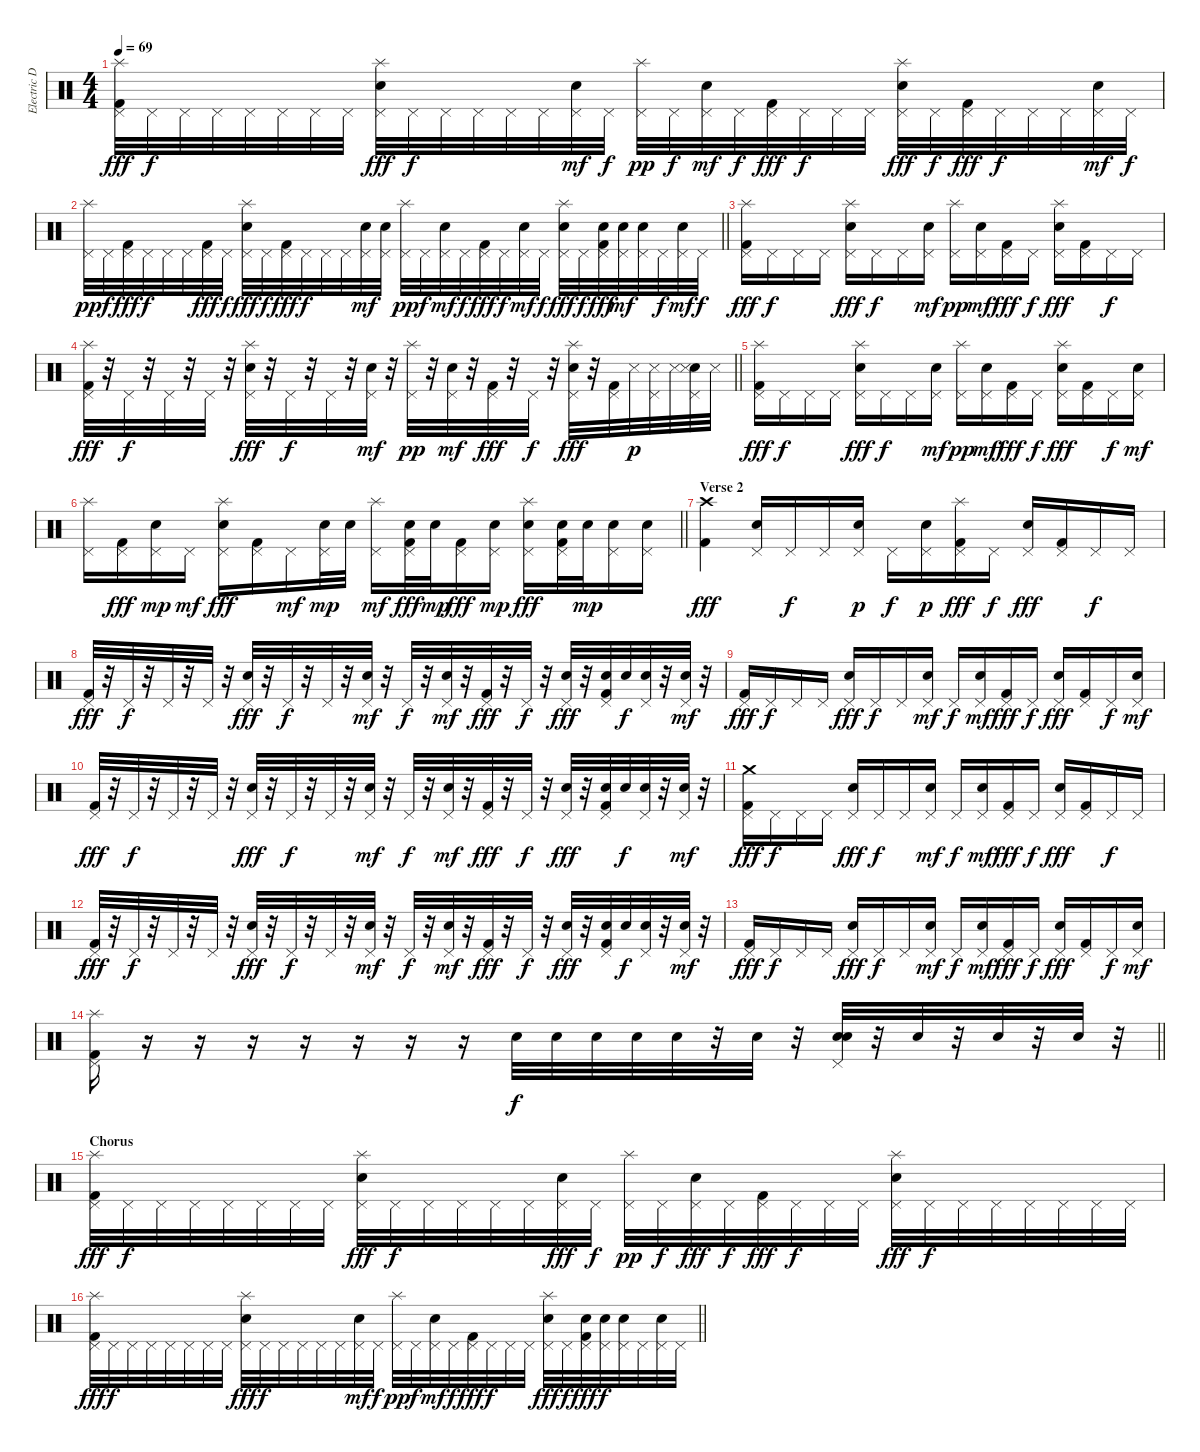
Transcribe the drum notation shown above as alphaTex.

\track ("Electric Drums" "Electric D") {instrument percussion}
\staff {score}
\articulation defaults
\ts (4 4)
\tempo 69
\clef neutral
\ks aminor
("Splash (hit)" "Pedal Hi-Hat (hit)" "Kick (hit) 2").32{dy fff} "Pedal Hi-Hat (hit)".32{dy f} "Pedal Hi-Hat (hit)".32 "Pedal Hi-Hat (hit)".32 "Pedal Hi-Hat (hit)".32 "Pedal Hi-Hat (hit)".32 "Pedal Hi-Hat (hit)".32 "Pedal Hi-Hat (hit)".32 ("Splash (hit)" "Pedal Hi-Hat (hit)" "Hand Clap (hit)").32{dy fff} "Pedal Hi-Hat (hit)".32{dy f} "Pedal Hi-Hat (hit)".32 "Pedal Hi-Hat (hit)".32 "Pedal Hi-Hat (hit)".32 "Pedal Hi-Hat (hit)".32 ("Pedal Hi-Hat (hit)" "Snare (hit) 2").32{dy mf} "Pedal Hi-Hat (hit)".32{dy f} ("Splash (hit)" "Pedal Hi-Hat (hit)").32{dy pp} "Pedal Hi-Hat (hit)".32{dy f} ("Pedal Hi-Hat (hit)" "Snare (hit) 2").32{dy mf} "Pedal Hi-Hat (hit)".32{dy f} ("Pedal Hi-Hat (hit)" "Kick (hit) 2").32{dy fff} "Pedal Hi-Hat (hit)".32{dy f} "Pedal Hi-Hat (hit)".32 "Pedal Hi-Hat (hit)".32 ("Splash (hit)" "Pedal Hi-Hat (hit)" "Hand Clap (hit)").32{dy fff} "Pedal Hi-Hat (hit)".32{dy f} ("Pedal Hi-Hat (hit)" "Kick (hit) 2").32{dy fff} "Pedal Hi-Hat (hit)".32{dy f} "Pedal Hi-Hat (hit)".32 "Pedal Hi-Hat (hit)".32 ("Pedal Hi-Hat (hit)" "Snare (hit) 2").32{dy mf} "Pedal Hi-Hat (hit)".32{dy f} |
\barLineRight lightlight
("Splash (hit)" "Pedal Hi-Hat (hit)").32{dy pp} "Pedal Hi-Hat (hit)".32{dy f} ("Pedal Hi-Hat (hit)" "Kick (hit) 2").32{dy fff} "Pedal Hi-Hat (hit)".32{dy f} "Pedal Hi-Hat (hit)".32 "Pedal Hi-Hat (hit)".32 ("Pedal Hi-Hat (hit)" "Kick (hit) 2").32{dy fff} "Pedal Hi-Hat (hit)".32{dy f} ("Splash (hit)" "Pedal Hi-Hat (hit)" "Hand Clap (hit)").32{dy fff} "Pedal Hi-Hat (hit)".32{dy f} ("Pedal Hi-Hat (hit)" "Kick (hit) 2").32{dy fff} "Pedal Hi-Hat (hit)".32{dy f} "Pedal Hi-Hat (hit)".32 "Pedal Hi-Hat (hit)".32 ("Pedal Hi-Hat (hit)" "Snare (hit) 2").32{dy mf} ("Pedal Hi-Hat (hit)" "Snare (hit) 2").32 ("Splash (hit)" "Pedal Hi-Hat (hit)").32{dy pp} "Pedal Hi-Hat (hit)".32{dy f} ("Pedal Hi-Hat (hit)" "Snare (hit) 2").32{dy mf} "Pedal Hi-Hat (hit)".32{dy f} ("Pedal Hi-Hat (hit)" "Kick (hit) 2").32{dy fff} "Pedal Hi-Hat (hit)".32{dy f} ("Pedal Hi-Hat (hit)" "Snare (hit) 2").32{dy mf} "Pedal Hi-Hat (hit)".32{dy f} ("Splash (hit)" "Pedal Hi-Hat (hit)" "Hand Clap (hit)").32{dy fff} "Pedal Hi-Hat (hit)".32{dy f} ("Pedal Hi-Hat (hit)" "Snare (hit) 2" "Kick (hit) 2").32{dy fff} ("Pedal Hi-Hat (hit)" "Snare (hit) 2").32{dy mf} ("Pedal Hi-Hat (hit)" "Snare (hit) 2").32 "Pedal Hi-Hat (hit)".32{dy f} ("Pedal Hi-Hat (hit)" "Snare (hit) 2").32{dy mf} "Pedal Hi-Hat (hit)".32{dy f} |
("Splash (hit)" "Pedal Hi-Hat (hit)" "Kick (hit) 2").16{dy fff} "Pedal Hi-Hat (hit)".16{dy f} "Pedal Hi-Hat (hit)".16 "Pedal Hi-Hat (hit)".16 ("Splash (hit)" "Pedal Hi-Hat (hit)" "Hand Clap (hit)").16{dy fff} "Pedal Hi-Hat (hit)".16{dy f} "Pedal Hi-Hat (hit)".16 ("Pedal Hi-Hat (hit)" "Snare (hit) 2").16{dy mf} ("Splash (hit)" "Pedal Hi-Hat (hit)").16{dy pp} ("Pedal Hi-Hat (hit)" "Snare (hit) 2").16{dy mf} ("Pedal Hi-Hat (hit)" "Kick (hit) 2").16{dy fff} "Pedal Hi-Hat (hit)".16{dy f} ("Splash (hit)" "Pedal Hi-Hat (hit)" "Hand Clap (hit)").16{dy fff} ("Pedal Hi-Hat (hit)" "Kick (hit) 2").16 "Pedal Hi-Hat (hit)".16{dy f} "Pedal Hi-Hat (hit)".16 |
\barLineRight lightlight
("Splash (hit)" "Pedal Hi-Hat (hit)" "Kick (hit) 2").32{dy fff} r.32 "Pedal Hi-Hat (hit)".32{dy f} r.32 "Pedal Hi-Hat (hit)".32 r.32 "Pedal Hi-Hat (hit)".32 r.32 ("Splash (hit)" "Pedal Hi-Hat (hit)" "Hand Clap (hit)").32{dy fff} r.32 "Pedal Hi-Hat (hit)".32{dy f} r.32 "Pedal Hi-Hat (hit)".32 r.32 ("Pedal Hi-Hat (hit)" "Snare (hit) 2").32{dy mf} r.32 ("Splash (hit)" "Pedal Hi-Hat (hit)").32{dy pp} r.32 ("Pedal Hi-Hat (hit)" "Snare (hit) 2").32{dy mf} r.32 ("Pedal Hi-Hat (hit)" "Kick (hit) 2").32{dy fff} r.32 "Pedal Hi-Hat (hit)".32{dy f} r.32 ("Splash (hit)" "Pedal Hi-Hat (hit)" "Hand Clap (hit)").32{dy fff} r.32 ("Pedal Hi-Hat (hit)" "Kick (hit) 2").32 "Snare (side stick) 3".32{dy p} ("Pedal Hi-Hat (hit)" "Snare (side stick) 3").32 "Snare (side stick) 3".32 ("Pedal Hi-Hat (hit)" "Snare (hit) 2" "Snare (side stick) 3").32 "Snare (side stick) 3".32 |
("Splash (hit)" "Pedal Hi-Hat (hit)" "Kick (hit) 2").16{dy fff} "Pedal Hi-Hat (hit)".16{dy f} "Pedal Hi-Hat (hit)".16 "Pedal Hi-Hat (hit)".16 ("Splash (hit)" "Pedal Hi-Hat (hit)" "Hand Clap (hit)").16{dy fff} "Pedal Hi-Hat (hit)".16{dy f} "Pedal Hi-Hat (hit)".16 ("Pedal Hi-Hat (hit)" "Snare (hit) 2").16{dy mf} ("Splash (hit)" "Pedal Hi-Hat (hit)").16{dy pp} ("Pedal Hi-Hat (hit)" "Snare (hit) 2").16{dy mf} ("Pedal Hi-Hat (hit)" "Kick (hit) 2").16{dy fff} "Pedal Hi-Hat (hit)".16{dy f} ("Splash (hit)" "Pedal Hi-Hat (hit)" "Hand Clap (hit)").16{dy fff} ("Pedal Hi-Hat (hit)" "Kick (hit) 2").16 "Pedal Hi-Hat (hit)".16{dy f} ("Pedal Hi-Hat (hit)" "Snare (hit) 2").16{dy mf} |
\barLineRight lightlight
("Splash (hit)" "Pedal Hi-Hat (hit)").16 ("Pedal Hi-Hat (hit)" "Kick (hit) 2").16{dy fff} ("Pedal Hi-Hat (hit)" "Snare (hit) 2").16{dy mp} "Pedal Hi-Hat (hit)".16{dy mf} ("Splash (hit)" "Pedal Hi-Hat (hit)" "Hand Clap (hit)").16{dy fff} ("Pedal Hi-Hat (hit)" "Kick (hit) 2").16 "Pedal Hi-Hat (hit)".16{dy mf} ("Pedal Hi-Hat (hit)" "Snare (hit) 2").32{dy mp} "Snare (hit) 2".32 ("Splash (hit)" "Pedal Hi-Hat (hit)").16{dy mf} ("Pedal Hi-Hat (hit)" "Snare (hit) 2" "Kick (hit) 2").32{dy fff} "Snare (hit) 2".32{dy mp} ("Pedal Hi-Hat (hit)" "Kick (hit) 2").16{dy fff} ("Pedal Hi-Hat (hit)" "Snare (hit) 2").16{dy mp} ("Splash (hit)" "Pedal Hi-Hat (hit)" "Hand Clap (hit)").16{dy fff} ("Pedal Hi-Hat (hit)" "Snare (hit) 2" "Kick (hit) 2").32 "Snare (hit) 2".32{dy mp} ("Pedal Hi-Hat (hit)" "Snare (hit) 2").16 ("Pedal Hi-Hat (hit)" "Snare (hit) 2").16 |
\section ("" "Verse 2")
("Crash high (hit)" "Kick (hit) 2").4{dy fff} ("Pedal Hi-Hat (hit)" "Hand Clap (hit)").16 "Pedal Hi-Hat (hit)".16{dy f} "Pedal Hi-Hat (hit)".16 ("Pedal Hi-Hat (hit)" "Snare (hit) 2").16{dy p} "Pedal Hi-Hat (hit)".16{dy f} ("Pedal Hi-Hat (hit)" "Snare (hit) 2").16{dy p} ("Splash (hit)" "Pedal Hi-Hat (hit)" "Kick (hit) 2").16{dy fff} "Pedal Hi-Hat (hit)".16{dy f} ("Pedal Hi-Hat (hit)" "Hand Clap (hit)").16{dy fff} ("Pedal Hi-Hat (hit)" "Kick (hit) 2").16 "Pedal Hi-Hat (hit)".16{dy f} "Pedal Hi-Hat (hit)".16 |
("Pedal Hi-Hat (hit)" "Kick (hit) 2").32{dy fff} r.32 "Pedal Hi-Hat (hit)".32{dy f} r.32 "Pedal Hi-Hat (hit)".32 r.32 "Pedal Hi-Hat (hit)".32 r.32 ("Pedal Hi-Hat (hit)" "Hand Clap (hit)").32{dy fff} r.32 "Pedal Hi-Hat (hit)".32{dy f} r.32 "Pedal Hi-Hat (hit)".32 r.32 ("Pedal Hi-Hat (hit)" "Snare (hit) 2").32{dy mf} r.32 "Pedal Hi-Hat (hit)".32{dy f} r.32 ("Pedal Hi-Hat (hit)" "Snare (hit) 2").32{dy mf} r.32 ("Pedal Hi-Hat (hit)" "Kick (hit) 2").32{dy fff} r.32 "Pedal Hi-Hat (hit)".32{dy f} r.32 ("Pedal Hi-Hat (hit)" "Hand Clap (hit)").32{dy fff} r.32 ("Pedal Hi-Hat (hit)" "Snare (hit) 2" "Kick (hit) 2").32 "Snare (hit) 2".32{dy f} ("Pedal Hi-Hat (hit)" "Snare (hit) 2").32 r.32 ("Pedal Hi-Hat (hit)" "Snare (hit) 2").32{dy mf} r.32 |
("Pedal Hi-Hat (hit)" "Kick (hit) 2").16{dy fff} "Pedal Hi-Hat (hit)".16{dy f} "Pedal Hi-Hat (hit)".16 "Pedal Hi-Hat (hit)".16 ("Pedal Hi-Hat (hit)" "Hand Clap (hit)").16{dy fff} "Pedal Hi-Hat (hit)".16{dy f} "Pedal Hi-Hat (hit)".16 ("Pedal Hi-Hat (hit)" "Snare (hit) 2").16{dy mf} "Pedal Hi-Hat (hit)".16{dy f} ("Pedal Hi-Hat (hit)" "Snare (hit) 2").16{dy mf} ("Pedal Hi-Hat (hit)" "Kick (hit) 2").16{dy fff} "Pedal Hi-Hat (hit)".16{dy f} ("Pedal Hi-Hat (hit)" "Hand Clap (hit)").16{dy fff} ("Pedal Hi-Hat (hit)" "Kick (hit) 2").16 "Pedal Hi-Hat (hit)".16{dy f} ("Pedal Hi-Hat (hit)" "Snare (hit) 2").16{dy mf} |
("Pedal Hi-Hat (hit)" "Kick (hit) 2").32{dy fff} r.32 "Pedal Hi-Hat (hit)".32{dy f} r.32 "Pedal Hi-Hat (hit)".32 r.32 "Pedal Hi-Hat (hit)".32 r.32 ("Pedal Hi-Hat (hit)" "Hand Clap (hit)").32{dy fff} r.32 "Pedal Hi-Hat (hit)".32{dy f} r.32 "Pedal Hi-Hat (hit)".32 r.32 ("Pedal Hi-Hat (hit)" "Snare (hit) 2").32{dy mf} r.32 "Pedal Hi-Hat (hit)".32{dy f} r.32 ("Pedal Hi-Hat (hit)" "Snare (hit) 2").32{dy mf} r.32 ("Pedal Hi-Hat (hit)" "Kick (hit) 2").32{dy fff} r.32 "Pedal Hi-Hat (hit)".32{dy f} r.32 ("Pedal Hi-Hat (hit)" "Hand Clap (hit)").32{dy fff} r.32 ("Pedal Hi-Hat (hit)" "Snare (hit) 2" "Kick (hit) 2").32 "Snare (hit) 2".32{dy f} ("Pedal Hi-Hat (hit)" "Snare (hit) 2").32 r.32 ("Pedal Hi-Hat (hit)" "Snare (hit) 2").32{dy mf} r.32 |
("Crash medium (hit)" "Pedal Hi-Hat (hit)" "Kick (hit) 2").16{dy fff} "Pedal Hi-Hat (hit)".16{dy f} "Pedal Hi-Hat (hit)".16 "Pedal Hi-Hat (hit)".16 ("Pedal Hi-Hat (hit)" "Hand Clap (hit)").16{dy fff} "Pedal Hi-Hat (hit)".16{dy f} "Pedal Hi-Hat (hit)".16 ("Pedal Hi-Hat (hit)" "Snare (hit) 2").16{dy mf} "Pedal Hi-Hat (hit)".16{dy f} ("Pedal Hi-Hat (hit)" "Snare (hit) 2").16{dy mf} ("Pedal Hi-Hat (hit)" "Kick (hit) 2").16{dy fff} "Pedal Hi-Hat (hit)".16{dy f} ("Pedal Hi-Hat (hit)" "Hand Clap (hit)").16{dy fff} ("Pedal Hi-Hat (hit)" "Kick (hit) 2").16 "Pedal Hi-Hat (hit)".16{dy f} "Pedal Hi-Hat (hit)".16 |
("Pedal Hi-Hat (hit)" "Kick (hit) 2").32{dy fff} r.32 "Pedal Hi-Hat (hit)".32{dy f} r.32 "Pedal Hi-Hat (hit)".32 r.32 "Pedal Hi-Hat (hit)".32 r.32 ("Pedal Hi-Hat (hit)" "Hand Clap (hit)").32{dy fff} r.32 "Pedal Hi-Hat (hit)".32{dy f} r.32 "Pedal Hi-Hat (hit)".32 r.32 ("Pedal Hi-Hat (hit)" "Snare (hit) 2").32{dy mf} r.32 "Pedal Hi-Hat (hit)".32{dy f} r.32 ("Pedal Hi-Hat (hit)" "Snare (hit) 2").32{dy mf} r.32 ("Pedal Hi-Hat (hit)" "Kick (hit) 2").32{dy fff} r.32 "Pedal Hi-Hat (hit)".32{dy f} r.32 ("Pedal Hi-Hat (hit)" "Hand Clap (hit)").32{dy fff} r.32 ("Pedal Hi-Hat (hit)" "Snare (hit) 2" "Kick (hit) 2").32 "Snare (hit) 2".32{dy f} ("Pedal Hi-Hat (hit)" "Snare (hit) 2").32 r.32 ("Pedal Hi-Hat (hit)" "Snare (hit) 2").32{dy mf} r.32 |
("Pedal Hi-Hat (hit)" "Kick (hit) 2").16{dy fff} "Pedal Hi-Hat (hit)".16{dy f} "Pedal Hi-Hat (hit)".16 "Pedal Hi-Hat (hit)".16 ("Pedal Hi-Hat (hit)" "Hand Clap (hit)").16{dy fff} "Pedal Hi-Hat (hit)".16{dy f} "Pedal Hi-Hat (hit)".16 ("Pedal Hi-Hat (hit)" "Snare (hit) 2").16{dy mf} "Pedal Hi-Hat (hit)".16{dy f} ("Pedal Hi-Hat (hit)" "Snare (hit) 2").16{dy mf} ("Pedal Hi-Hat (hit)" "Kick (hit) 2").16{dy fff} "Pedal Hi-Hat (hit)".16{dy f} ("Pedal Hi-Hat (hit)" "Hand Clap (hit)").16{dy fff} ("Pedal Hi-Hat (hit)" "Kick (hit) 2").16 "Pedal Hi-Hat (hit)".16{dy f} ("Pedal Hi-Hat (hit)" "Snare (hit) 2").16{dy mf} |
\barLineRight lightlight
("Splash (hit)" "Pedal Hi-Hat (hit)" "Kick (hit) 2").16 r.16 r.16 r.16 r.16 r.16 r.16 r.16 "Snare (hit) 2".32{dy f} "Snare (hit) 2".32 "Snare (hit) 2".32 "Snare (hit) 2".32 "Snare (hit) 2".32 r.32 "Snare (hit) 2".32 r.32 ("Pedal Hi-Hat (hit)" "Hand Clap (hit)" "Snare (hit) 2").32 r.32 "Snare (hit) 2".32 r.32 "Snare (hit) 2".32 r.32 "Snare (hit) 2".32 r.32 |
\section ("" "Chorus")
("Splash (hit)" "Pedal Hi-Hat (hit)" "Kick (hit) 2").32{dy fff} "Pedal Hi-Hat (hit)".32{dy f} "Pedal Hi-Hat (hit)".32 "Pedal Hi-Hat (hit)".32 "Pedal Hi-Hat (hit)".32 "Pedal Hi-Hat (hit)".32 "Pedal Hi-Hat (hit)".32 "Pedal Hi-Hat (hit)".32 ("Splash (hit)" "Pedal Hi-Hat (hit)" "Hand Clap (hit)").32{dy fff} "Pedal Hi-Hat (hit)".32{dy f} "Pedal Hi-Hat (hit)".32 "Pedal Hi-Hat (hit)".32 "Pedal Hi-Hat (hit)".32 "Pedal Hi-Hat (hit)".32 ("Pedal Hi-Hat (hit)" "Snare (hit) 2").32{dy fff} "Pedal Hi-Hat (hit)".32{dy f} ("Splash (hit)" "Pedal Hi-Hat (hit)").32{dy pp} "Pedal Hi-Hat (hit)".32{dy f} ("Pedal Hi-Hat (hit)" "Snare (hit) 2").32{dy fff} "Pedal Hi-Hat (hit)".32{dy f} ("Pedal Hi-Hat (hit)" "Kick (hit) 2").32{dy fff} "Pedal Hi-Hat (hit)".32{dy f} "Pedal Hi-Hat (hit)".32 "Pedal Hi-Hat (hit)".32 ("Splash (hit)" "Pedal Hi-Hat (hit)" "Hand Clap (hit)").32{dy fff} "Pedal Hi-Hat (hit)".32{dy f} "Pedal Hi-Hat (hit)".32 "Pedal Hi-Hat (hit)".32 "Pedal Hi-Hat (hit)".32 "Pedal Hi-Hat (hit)".32 "Pedal Hi-Hat (hit)".32 "Pedal Hi-Hat (hit)".32 |
\barLineRight lightlight
("Splash (hit)" "Pedal Hi-Hat (hit)" "Kick (hit) 2").32{dy fff} "Pedal Hi-Hat (hit)".32{dy f} "Pedal Hi-Hat (hit)".32 "Pedal Hi-Hat (hit)".32 "Pedal Hi-Hat (hit)".32 "Pedal Hi-Hat (hit)".32 "Pedal Hi-Hat (hit)".32 "Pedal Hi-Hat (hit)".32 ("Splash (hit)" "Pedal Hi-Hat (hit)" "Hand Clap (hit)").32{dy fff} "Pedal Hi-Hat (hit)".32{dy f} "Pedal Hi-Hat (hit)".32 "Pedal Hi-Hat (hit)".32 "Pedal Hi-Hat (hit)".32 "Pedal Hi-Hat (hit)".32 ("Pedal Hi-Hat (hit)" "Snare (hit) 2").32{dy mf} "Pedal Hi-Hat (hit)".32{dy f} ("Splash (hit)" "Pedal Hi-Hat (hit)").32{dy pp} "Pedal Hi-Hat (hit)".32{dy f} ("Pedal Hi-Hat (hit)" "Snare (hit) 2").32{dy mf} "Pedal Hi-Hat (hit)".32{dy f} ("Pedal Hi-Hat (hit)" "Kick (hit) 2").32{dy fff} "Pedal Hi-Hat (hit)".32{dy f} "Pedal Hi-Hat (hit)".32 "Pedal Hi-Hat (hit)".32 ("Splash (hit)" "Pedal Hi-Hat (hit)" "Hand Clap (hit)").32{dy fff} "Pedal Hi-Hat (hit)".32{dy f} ("Pedal Hi-Hat (hit)" "Snare (hit) 2" "Kick (hit) 2").32{dy fff} ("Pedal Hi-Hat (hit)" "Snare (hit) 2").32{dy f} ("Pedal Hi-Hat (hit)" "Snare (hit) 2").32 "Pedal Hi-Hat (hit)".32 ("Pedal Hi-Hat (hit)" "Snare (hit) 2").32 "Pedal Hi-Hat (hit)".32
